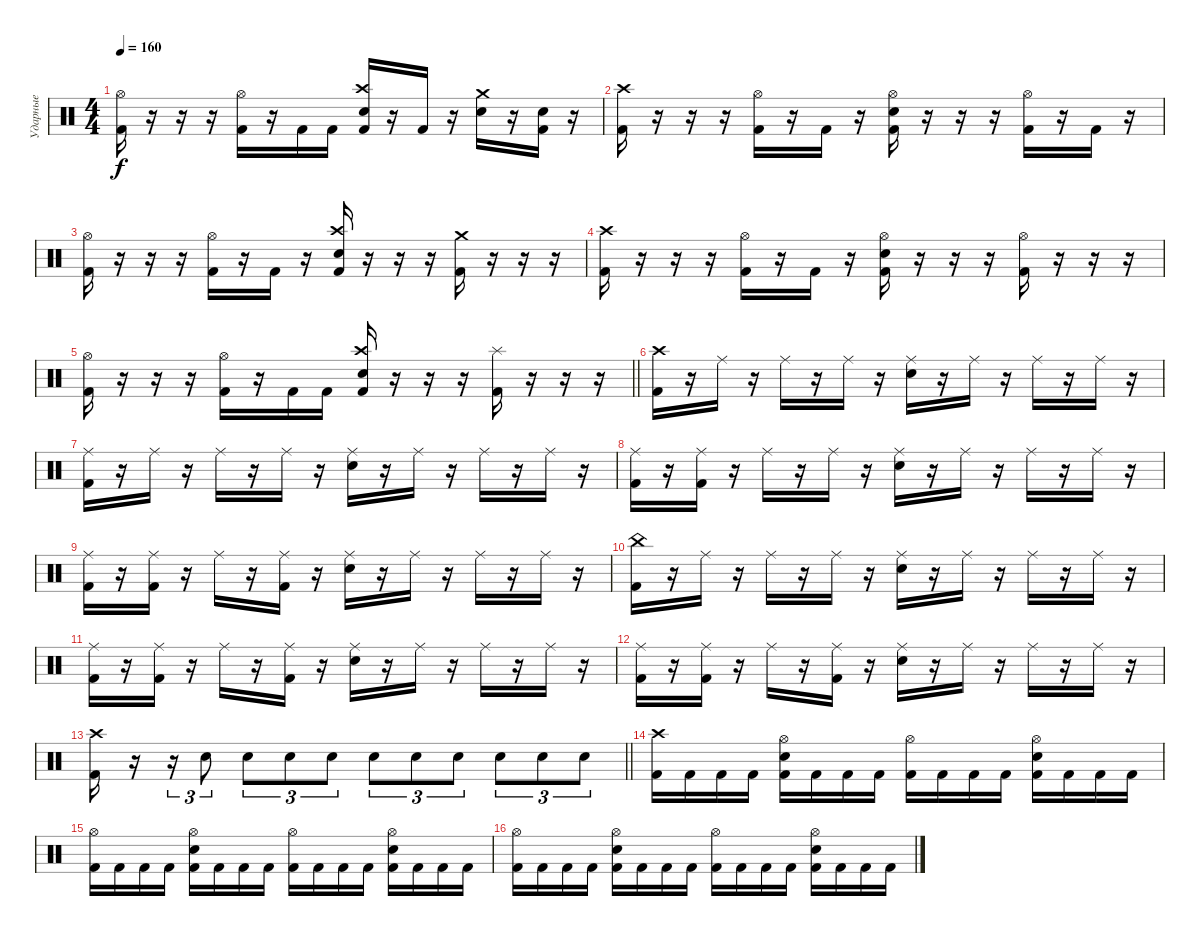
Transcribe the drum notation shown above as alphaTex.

\track ("Ударные" "Ударные") {instrument percussion}
\staff {score}
\articulation defaults
\ts (4 4)
\tempo 160
\clef neutral
\ks c
("Hi-Hat (open)" "Kick (hit) 2").16{dy f} r.16 r.16 r.16 ("Hi-Hat (open)" "Kick (hit) 2").16 r.16 "Kick (hit) 2".16 "Kick (hit) 2".16 ("Crash high (hit)" "Electric Snare (hit)" "Kick (hit) 2").16 r.16 "Kick (hit) 2".16 r.16 ("Crash medium (hit)" "Electric Snare (hit)").16 r.16 ("Electric Snare (hit)" "Kick (hit) 2").16 r.16 |
("Crash high (hit)" "Kick (hit) 2").16 r.16 r.16 r.16 ("Hi-Hat (open)" "Kick (hit) 2").16 r.16 "Kick (hit) 2".16 r.16 ("Hi-Hat (open)" "Electric Snare (hit)" "Kick (hit) 2").16 r.16 r.16 r.16 ("Hi-Hat (open)" "Kick (hit) 2").16 r.16 "Kick (hit) 2".16 r.16 |
("Hi-Hat (open)" "Kick (hit) 2").16 r.16 r.16 r.16 ("Hi-Hat (open)" "Kick (hit) 2").16 r.16 "Kick (hit) 2".16 r.16 ("Crash high (hit)" "Electric Snare (hit)" "Kick (hit) 2").16 r.16 r.16 r.16 ("Crash medium (hit)" "Kick (hit) 2").16 r.16 r.16 r.16 |
("Crash high (hit)" "Kick (hit) 2").16 r.16 r.16 r.16 ("Hi-Hat (open)" "Kick (hit) 2").16 r.16 "Kick (hit) 2".16 r.16 ("Hi-Hat (open)" "Electric Snare (hit)" "Kick (hit) 2").16 r.16 r.16 r.16 ("Hi-Hat (open)" "Kick (hit) 2").16 r.16 r.16 r.16 |
\barLineRight lightlight
("Hi-Hat (open)" "Kick (hit) 2").16 r.16 r.16 r.16 ("Hi-Hat (open)" "Kick (hit) 2").16 r.16 "Kick (hit) 2".16 "Kick (hit) 2".16 ("Crash high (hit)" "Electric Snare (hit)" "Kick (hit) 2").16 r.16 r.16 r.16 ("Splash (hit)" "Kick (hit) 2").16 r.16 r.16 r.16 |
\section ("" "")
("Crash high (hit)" "Kick (hit) 2").16 r.16 "Ride (middle)".16 r.16 "Ride (middle)".16 r.16 "Ride (middle)".16 r.16 ("Ride (middle)" "Electric Snare (hit)").16 r.16 "Ride (middle)".16 r.16 "Ride (middle)".16 r.16 "Ride (middle)".16 r.16 |
("Ride (middle)" "Kick (hit) 2").16 r.16 "Ride (middle)".16 r.16 "Ride (middle)".16 r.16 "Ride (middle)".16 r.16 ("Ride (middle)" "Electric Snare (hit)").16 r.16 "Ride (middle)".16 r.16 "Ride (middle)".16 r.16 "Ride (middle)".16 r.16 |
("Ride (middle)" "Kick (hit) 2").16 r.16 ("Ride (middle)" "Kick (hit) 2").16 r.16 "Ride (middle)".16 r.16 "Ride (middle)".16 r.16 ("Ride (middle)" "Electric Snare (hit)").16 r.16 "Ride (middle)".16 r.16 "Ride (middle)".16 r.16 "Ride (middle)".16 r.16 |
("Ride (middle)" "Kick (hit) 2").16 r.16 ("Ride (middle)" "Kick (hit) 2").16 r.16 "Ride (middle)".16 r.16 ("Ride (middle)" "Kick (hit) 2").16 r.16 ("Ride (middle)" "Electric Snare (hit)").16 r.16 "Ride (middle)".16 r.16 "Ride (middle)".16 r.16 "Ride (middle)".16 r.16 |
("China (hit)" "Kick (hit) 2").16 r.16 "Ride (middle)".16 r.16 "Ride (middle)".16 r.16 "Ride (middle)".16 r.16 ("Ride (middle)" "Electric Snare (hit)").16 r.16 "Ride (middle)".16 r.16 "Ride (middle)".16 r.16 "Ride (middle)".16 r.16 |
("Ride (middle)" "Kick (hit) 2").16 r.16 ("Ride (middle)" "Kick (hit) 2").16 r.16 "Ride (middle)".16 r.16 ("Ride (middle)" "Kick (hit) 2").16 r.16 ("Ride (middle)" "Electric Snare (hit)").16 r.16 "Ride (middle)".16 r.16 "Ride (middle)".16 r.16 "Ride (middle)".16 r.16 |
("Ride (middle)" "Kick (hit) 2").16 r.16 ("Ride (middle)" "Kick (hit) 2").16 r.16 "Ride (middle)".16 r.16 ("Ride (middle)" "Kick (hit) 2").16 r.16 ("Ride (middle)" "Electric Snare (hit)").16 r.16 "Ride (middle)".16 r.16 "Ride (middle)".16 r.16 "Ride (middle)".16 r.16 |
\barLineRight lightlight
("Crash high (hit)" "Kick (hit) 2").16 r.16 r.16{tu (3 2)} "Electric Snare (hit)".8{tu (3 2)} "Electric Snare (hit)".8{tu (3 2)} "Electric Snare (hit)".8{tu (3 2)} "Electric Snare (hit)".8{tu (3 2)} "Electric Snare (hit)".8{tu (3 2)} "Electric Snare (hit)".8{tu (3 2)} "Electric Snare (hit)".8{tu (3 2)} "Electric Snare (hit)".8{tu (3 2)} "Electric Snare (hit)".8{tu (3 2)} "Electric Snare (hit)".8{tu (3 2)} |
\section ("" "")
("Crash high (hit)" "Kick (hit) 2").16 "Kick (hit) 2".16 "Kick (hit) 2".16 "Kick (hit) 2".16 ("Hi-Hat (open)" "Electric Snare (hit)" "Kick (hit) 2").16 "Kick (hit) 2".16 "Kick (hit) 2".16 "Kick (hit) 2".16 ("Hi-Hat (open)" "Kick (hit) 2").16 "Kick (hit) 2".16 "Kick (hit) 2".16 "Kick (hit) 2".16 ("Hi-Hat (open)" "Electric Snare (hit)" "Kick (hit) 2").16 "Kick (hit) 2".16 "Kick (hit) 2".16 "Kick (hit) 2".16 |
("Hi-Hat (open)" "Kick (hit) 2").16 "Kick (hit) 2".16 "Kick (hit) 2".16 "Kick (hit) 2".16 ("Hi-Hat (open)" "Electric Snare (hit)" "Kick (hit) 2").16 "Kick (hit) 2".16 "Kick (hit) 2".16 "Kick (hit) 2".16 ("Hi-Hat (open)" "Kick (hit) 2").16 "Kick (hit) 2".16 "Kick (hit) 2".16 "Kick (hit) 2".16 ("Hi-Hat (open)" "Electric Snare (hit)" "Kick (hit) 2").16 "Kick (hit) 2".16 "Kick (hit) 2".16 "Kick (hit) 2".16 |
("Hi-Hat (open)" "Kick (hit) 2").16 "Kick (hit) 2".16 "Kick (hit) 2".16 "Kick (hit) 2".16 ("Hi-Hat (open)" "Electric Snare (hit)" "Kick (hit) 2").16 "Kick (hit) 2".16 "Kick (hit) 2".16 "Kick (hit) 2".16 ("Hi-Hat (open)" "Kick (hit) 2").16 "Kick (hit) 2".16 "Kick (hit) 2".16 "Kick (hit) 2".16 ("Hi-Hat (open)" "Electric Snare (hit)" "Kick (hit) 2").16 "Kick (hit) 2".16 "Kick (hit) 2".16 "Kick (hit) 2".16
